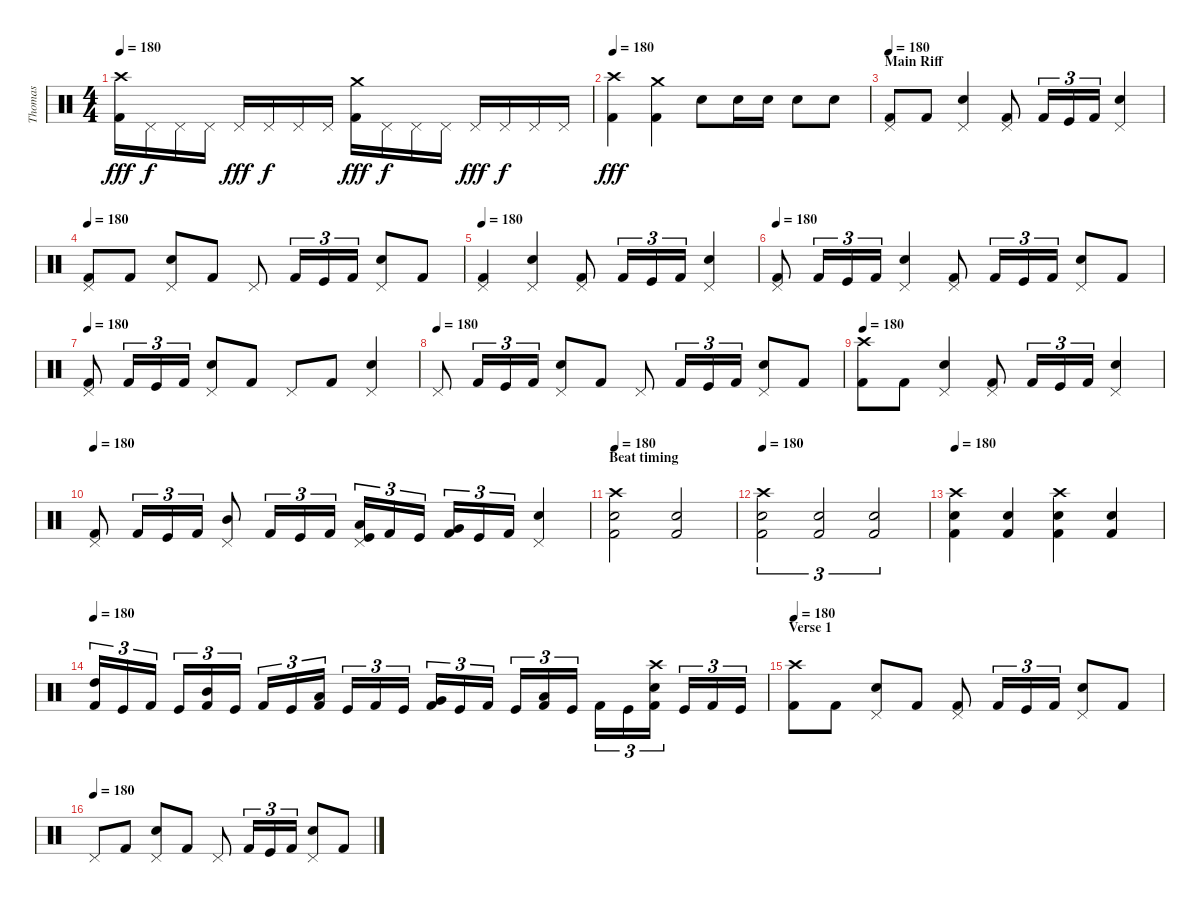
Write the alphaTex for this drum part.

\track ("Thomas" "Thomas") {instrument percussion}
\staff {score}
\articulation defaults
\ts (4 4)
\tempo 180
\clef neutral
\ks c
("Crash high (hit)" "Kick (hit) 2").16{dy fff} "Pedal Hi-Hat (hit)".16{dy f} "Pedal Hi-Hat (hit)".16 "Pedal Hi-Hat (hit)".16 "Pedal Hi-Hat (hit)".16{dy fff} "Pedal Hi-Hat (hit)".16{dy f} "Pedal Hi-Hat (hit)".16 "Pedal Hi-Hat (hit)".16 ("Crash medium (hit)" "Kick (hit) 2").16{dy fff} "Pedal Hi-Hat (hit)".16{dy f} "Pedal Hi-Hat (hit)".16 "Pedal Hi-Hat (hit)".16 "Pedal Hi-Hat (hit)".16{dy fff} "Pedal Hi-Hat (hit)".16{dy f} "Pedal Hi-Hat (hit)".16 "Pedal Hi-Hat (hit)".16 |
\tempo 180
("Crash high (hit)" "Kick (hit) 2").4{dy fff} ("Crash medium (hit)" "Kick (hit) 2").4 "Snare (hit) 2".8 "Snare (hit) 2".16 "Snare (hit) 2".16 "Snare (hit) 2".8 "Snare (hit) 2".8 |
\section ("" "Main Riff")
\tempo 180
("Pedal Hi-Hat (hit)" "Kick (hit) 2").8 "Kick (hit) 2".8 ("Pedal Hi-Hat (hit)" "Snare (hit) 2").4 ("Pedal Hi-Hat (hit)" "Kick (hit) 2").8 "Kick (hit) 2".16{tu (3 2)} "Kick (hit)".16{tu (3 2)} "Kick (hit) 2".16{tu (3 2)} ("Pedal Hi-Hat (hit)" "Snare (hit) 2").4 |
\tempo 180
("Pedal Hi-Hat (hit)" "Kick (hit) 2").8 "Kick (hit) 2".8 ("Pedal Hi-Hat (hit)" "Snare (hit) 2").8 "Kick (hit) 2".8 "Pedal Hi-Hat (hit)".8 "Kick (hit) 2".16{tu (3 2)} "Kick (hit)".16{tu (3 2)} "Kick (hit) 2".16{tu (3 2)} ("Pedal Hi-Hat (hit)" "Snare (hit) 2").8 "Kick (hit) 2".8 |
\tempo 180
("Pedal Hi-Hat (hit)" "Kick (hit) 2").4 ("Pedal Hi-Hat (hit)" "Snare (hit) 2").4 ("Pedal Hi-Hat (hit)" "Kick (hit) 2").8 "Kick (hit) 2".16{tu (3 2)} "Kick (hit)".16{tu (3 2)} "Kick (hit) 2".16{tu (3 2)} ("Pedal Hi-Hat (hit)" "Snare (hit) 2").4 |
\tempo 180
("Pedal Hi-Hat (hit)" "Kick (hit) 2").8 "Kick (hit) 2".16{tu (3 2)} "Kick (hit)".16{tu (3 2)} "Kick (hit) 2".16{tu (3 2)} ("Pedal Hi-Hat (hit)" "Snare (hit) 2").4 ("Pedal Hi-Hat (hit)" "Kick (hit) 2").8 "Kick (hit) 2".16{tu (3 2)} "Kick (hit)".16{tu (3 2)} "Kick (hit) 2".16{tu (3 2)} ("Pedal Hi-Hat (hit)" "Snare (hit) 2").8 "Kick (hit) 2".8 |
\tempo 180
("Pedal Hi-Hat (hit)" "Kick (hit) 2").8 "Kick (hit) 2".16{tu (3 2)} "Kick (hit)".16{tu (3 2)} "Kick (hit) 2".16{tu (3 2)} ("Pedal Hi-Hat (hit)" "Snare (hit) 2").8 "Kick (hit) 2".8 "Pedal Hi-Hat (hit)".8 "Kick (hit) 2".8 ("Pedal Hi-Hat (hit)" "Snare (hit) 2").4 |
\tempo (180)
"Pedal Hi-Hat (hit)".8 "Kick (hit) 2".16{tu (3 2)} "Kick (hit)".16{tu (3 2)} "Kick (hit) 2".16{tu (3 2)} ("Pedal Hi-Hat (hit)" "Snare (hit) 2").8 "Kick (hit) 2".8 "Pedal Hi-Hat (hit)".8 "Kick (hit) 2".16{tu (3 2)} "Kick (hit)".16{tu (3 2)} "Kick (hit) 2".16{tu (3 2)} ("Pedal Hi-Hat (hit)" "Snare (hit) 2").8 "Kick (hit) 2".8 |
\tempo 180
("Crash high (hit)" "Kick (hit) 2").8 "Kick (hit) 2".8 ("Pedal Hi-Hat (hit)" "Snare (hit) 2").4 ("Pedal Hi-Hat (hit)" "Kick (hit) 2").8 "Kick (hit) 2".16{tu (3 2)} "Kick (hit)".16{tu (3 2)} "Kick (hit) 2".16{tu (3 2)} ("Pedal Hi-Hat (hit)" "Snare (hit) 2").4 |
\tempo 180
("Pedal Hi-Hat (hit)" "Kick (hit) 2").8 "Kick (hit) 2".16{tu (3 2)} "Kick (hit)".16{tu (3 2)} "Kick (hit) 2".16{tu (3 2)} ("Pedal Hi-Hat (hit)" "Mid Tom (hit)").8 "Kick (hit) 2".16{tu (3 2)} "Kick (hit)".16{tu (3 2)} "Kick (hit) 2".16{tu (3 2)} ("Pedal Hi-Hat (hit)" "Low Tom (hit)" "Kick (hit)").16{tu (3 2)} "Kick (hit) 2".16{tu (3 2)} "Kick (hit)".16{tu (3 2)} ("Very Low Tom (hit)" "Kick (hit) 2").16{tu (3 2)} "Kick (hit)".16{tu (3 2)} "Kick (hit) 2".16{tu (3 2)} ("Pedal Hi-Hat (hit)" "Snare (hit) 2").4 |
\section ("" "Beat timing")
\tempo 180
("Crash high (hit)" "Snare (hit) 2" "Kick (hit) 2").2 ("Snare (hit) 2" "Kick (hit) 2").2 |
\tempo 180
("Crash high (hit)" "Snare (hit) 2" "Kick (hit) 2").2{tu (3 2)} ("Snare (hit) 2" "Kick (hit) 2").2{tu (3 2)} ("Snare (hit) 2" "Kick (hit) 2").2{tu (3 2)} |
\tempo 180
("Crash high (hit)" "Snare (hit) 2" "Kick (hit) 2").4 ("Snare (hit) 2" "Kick (hit) 2").4 ("Crash high (hit)" "Snare (hit) 2" "Kick (hit) 2").4 ("Snare (hit) 2" "Kick (hit) 2").4 |
\tempo 180
("High Tom (hit)" "Kick (hit) 2").16{tu (3 2)} "Kick (hit)".16{tu (3 2)} "Kick (hit) 2".16{tu (3 2)} "Kick (hit)".16{tu (3 2)} ("Mid Tom (hit)" "Kick (hit) 2").16{tu (3 2)} "Kick (hit)".16{tu (3 2)} "Kick (hit) 2".16{tu (3 2)} "Kick (hit)".16{tu (3 2)} ("Low Tom (hit)" "Kick (hit) 2").16{tu (3 2)} "Kick (hit)".16{tu (3 2)} "Kick (hit) 2".16{tu (3 2)} "Kick (hit)".16{tu (3 2)} ("Very Low Tom (hit)" "Kick (hit) 2").16{tu (3 2)} "Kick (hit)".16{tu (3 2)} "Kick (hit) 2".16{tu (3 2)} "Kick (hit)".16{tu (3 2)} ("Low Floor Tom (hit)" "Kick (hit) 2").16{tu (3 2)} "Kick (hit)".16{tu (3 2)} "Kick (hit) 2".16{tu (3 2)} "Kick (hit)".16{tu (3 2)} ("Crash high (hit)" "Snare (hit) 2" "Kick (hit) 2").16{tu (3 2)} "Kick (hit)".16{tu (3 2)} "Kick (hit) 2".16{tu (3 2)} "Kick (hit)".16{tu (3 2)} |
\section ("" "Verse 1")
\tempo 180
("Crash high (hit)" "Kick (hit) 2").8 "Kick (hit) 2".8 ("Pedal Hi-Hat (hit)" "Snare (hit) 2").8 "Kick (hit) 2".8 ("Pedal Hi-Hat (hit)" "Kick (hit) 2").8 "Kick (hit) 2".16{tu (3 2)} "Kick (hit)".16{tu (3 2)} "Kick (hit) 2".16{tu (3 2)} ("Pedal Hi-Hat (hit)" "Snare (hit) 2").8 "Kick (hit) 2".8 |
\tempo (180)
"Pedal Hi-Hat (hit)".8 "Kick (hit) 2".8 ("Pedal Hi-Hat (hit)" "Snare (hit) 2").8 "Kick (hit) 2".8 "Pedal Hi-Hat (hit)".8 "Kick (hit) 2".16{tu (3 2)} "Kick (hit)".16{tu (3 2)} "Kick (hit) 2".16{tu (3 2)} ("Pedal Hi-Hat (hit)" "Snare (hit) 2").8 "Kick (hit) 2".8
